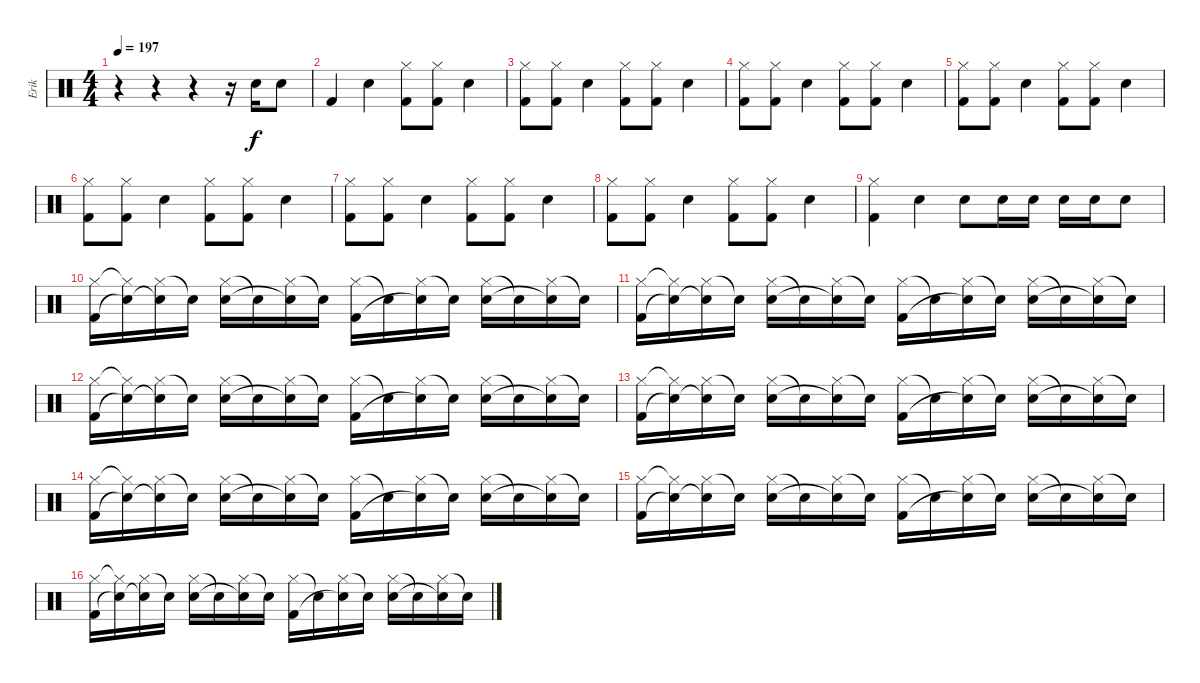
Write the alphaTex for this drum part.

\track ("Erik" "Erik") {instrument percussion}
\staff {score}
\articulation defaults
\ts (4 4)
\tempo 197
\clef neutral
\ks c
r.4{dy f} r.4 r.4 r.16 "Electric Snare (hit)".16 "Electric Snare (hit)".8 |
"Kick (hit) 2".4 "Electric Snare (hit)".4 ("Hi-Hat (closed)" "Kick (hit) 2").8 ("Hi-Hat (closed)" "Kick (hit) 2").8 "Electric Snare (hit)".4 |
("Hi-Hat (closed)" "Kick (hit) 2").8 ("Hi-Hat (closed)" "Kick (hit) 2").8 "Electric Snare (hit)".4 ("Hi-Hat (closed)" "Kick (hit) 2").8 ("Hi-Hat (closed)" "Kick (hit) 2").8 "Electric Snare (hit)".4 |
("Hi-Hat (closed)" "Kick (hit) 2").8 ("Hi-Hat (closed)" "Kick (hit) 2").8 "Electric Snare (hit)".4 ("Hi-Hat (closed)" "Kick (hit) 2").8 ("Hi-Hat (closed)" "Kick (hit) 2").8 "Electric Snare (hit)".4 |
("Hi-Hat (closed)" "Kick (hit) 2").8 ("Hi-Hat (closed)" "Kick (hit) 2").8 "Electric Snare (hit)".4 ("Hi-Hat (closed)" "Kick (hit) 2").8 ("Hi-Hat (closed)" "Kick (hit) 2").8 "Electric Snare (hit)".4 |
("Hi-Hat (closed)" "Kick (hit) 2").8 ("Hi-Hat (closed)" "Kick (hit) 2").8 "Electric Snare (hit)".4 ("Hi-Hat (closed)" "Kick (hit) 2").8 ("Hi-Hat (closed)" "Kick (hit) 2").8 "Electric Snare (hit)".4 |
("Hi-Hat (closed)" "Kick (hit) 2").8 ("Hi-Hat (closed)" "Kick (hit) 2").8 "Electric Snare (hit)".4 ("Hi-Hat (closed)" "Kick (hit) 2").8 ("Hi-Hat (closed)" "Kick (hit) 2").8 "Electric Snare (hit)".4 |
("Hi-Hat (closed)" "Kick (hit) 2").8 ("Hi-Hat (closed)" "Kick (hit) 2").8 "Electric Snare (hit)".4 ("Hi-Hat (closed)" "Kick (hit) 2").8 ("Hi-Hat (closed)" "Kick (hit) 2").8 "Electric Snare (hit)".4 |
("Hi-Hat (closed)" "Kick (hit) 2").4 "Electric Snare (hit)".4 "Electric Snare (hit)".8 "Electric Snare (hit)".16 "Electric Snare (hit)".16 "Electric Snare (hit)".16 "Electric Snare (hit)".16 "Electric Snare (hit)".8 |
("Hi-Hat (closed)" "Kick (hit) 2").16 ("Hi-Hat (closed)"{t} "Electric Snare (hit)"{t}).16 ("Hi-Hat (closed)" "Snare (hit)"{t}).16 "Snare (hit)"{t}.16 ("Hi-Hat (closed)" "Electric Snare (hit)").16 "Snare (hit)"{t}.16 ("Hi-Hat (closed)" "Snare (hit)"{t}).16 "Snare (hit)"{t}.16 ("Hi-Hat (closed)" "Kick (hit) 2").16 "Snare (hit)"{t}.16 ("Hi-Hat (closed)" "Snare (hit)"{t}).16 "Snare (hit)"{t}.16 ("Hi-Hat (closed)" "Electric Snare (hit)").16 "Snare (hit)"{t}.16 ("Hi-Hat (closed)" "Snare (hit)"{t}).16 "Snare (hit)"{t}.16 |
("Hi-Hat (closed)" "Kick (hit) 2").16 ("Hi-Hat (closed)"{t} "Electric Snare (hit)"{t}).16 ("Hi-Hat (closed)" "Snare (hit)"{t}).16 "Snare (hit)"{t}.16 ("Hi-Hat (closed)" "Electric Snare (hit)").16 "Snare (hit)"{t}.16 ("Hi-Hat (closed)" "Snare (hit)"{t}).16 "Snare (hit)"{t}.16 ("Hi-Hat (closed)" "Kick (hit) 2").16 "Snare (hit)"{t}.16 ("Hi-Hat (closed)" "Snare (hit)"{t}).16 "Snare (hit)"{t}.16 ("Hi-Hat (closed)" "Electric Snare (hit)").16 "Snare (hit)"{t}.16 ("Hi-Hat (closed)" "Snare (hit)"{t}).16 "Snare (hit)"{t}.16 |
("Hi-Hat (closed)" "Kick (hit) 2").16 ("Hi-Hat (closed)"{t} "Electric Snare (hit)"{t}).16 ("Hi-Hat (closed)" "Snare (hit)"{t}).16 "Snare (hit)"{t}.16 ("Hi-Hat (closed)" "Electric Snare (hit)").16 "Snare (hit)"{t}.16 ("Hi-Hat (closed)" "Snare (hit)"{t}).16 "Snare (hit)"{t}.16 ("Hi-Hat (closed)" "Kick (hit) 2").16 "Snare (hit)"{t}.16 ("Hi-Hat (closed)" "Snare (hit)"{t}).16 "Snare (hit)"{t}.16 ("Hi-Hat (closed)" "Electric Snare (hit)").16 "Snare (hit)"{t}.16 ("Hi-Hat (closed)" "Snare (hit)"{t}).16 "Snare (hit)"{t}.16 |
("Hi-Hat (closed)" "Kick (hit) 2").16 ("Hi-Hat (closed)"{t} "Electric Snare (hit)"{t}).16 ("Hi-Hat (closed)" "Snare (hit)"{t}).16 "Snare (hit)"{t}.16 ("Hi-Hat (closed)" "Electric Snare (hit)").16 "Snare (hit)"{t}.16 ("Hi-Hat (closed)" "Snare (hit)"{t}).16 "Snare (hit)"{t}.16 ("Hi-Hat (closed)" "Kick (hit) 2").16 "Snare (hit)"{t}.16 ("Hi-Hat (closed)" "Snare (hit)"{t}).16 "Snare (hit)"{t}.16 ("Hi-Hat (closed)" "Electric Snare (hit)").16 "Snare (hit)"{t}.16 ("Hi-Hat (closed)" "Snare (hit)"{t}).16 "Snare (hit)"{t}.16 |
("Hi-Hat (closed)" "Kick (hit) 2").16 ("Hi-Hat (closed)"{t} "Electric Snare (hit)"{t}).16 ("Hi-Hat (closed)" "Snare (hit)"{t}).16 "Snare (hit)"{t}.16 ("Hi-Hat (closed)" "Electric Snare (hit)").16 "Snare (hit)"{t}.16 ("Hi-Hat (closed)" "Snare (hit)"{t}).16 "Snare (hit)"{t}.16 ("Hi-Hat (closed)" "Kick (hit) 2").16 "Snare (hit)"{t}.16 ("Hi-Hat (closed)" "Snare (hit)"{t}).16 "Snare (hit)"{t}.16 ("Hi-Hat (closed)" "Electric Snare (hit)").16 "Snare (hit)"{t}.16 ("Hi-Hat (closed)" "Snare (hit)"{t}).16 "Snare (hit)"{t}.16 |
("Hi-Hat (closed)" "Kick (hit) 2").16 ("Hi-Hat (closed)"{t} "Electric Snare (hit)"{t}).16 ("Hi-Hat (closed)" "Snare (hit)"{t}).16 "Snare (hit)"{t}.16 ("Hi-Hat (closed)" "Electric Snare (hit)").16 "Snare (hit)"{t}.16 ("Hi-Hat (closed)" "Snare (hit)"{t}).16 "Snare (hit)"{t}.16 ("Hi-Hat (closed)" "Kick (hit) 2").16 "Snare (hit)"{t}.16 ("Hi-Hat (closed)" "Snare (hit)"{t}).16 "Snare (hit)"{t}.16 ("Hi-Hat (closed)" "Electric Snare (hit)").16 "Snare (hit)"{t}.16 ("Hi-Hat (closed)" "Snare (hit)"{t}).16 "Snare (hit)"{t}.16 |
("Hi-Hat (closed)" "Kick (hit) 2").16 ("Hi-Hat (closed)"{t} "Electric Snare (hit)"{t}).16 ("Hi-Hat (closed)" "Snare (hit)"{t}).16 "Snare (hit)"{t}.16 ("Hi-Hat (closed)" "Electric Snare (hit)").16 "Snare (hit)"{t}.16 ("Hi-Hat (closed)" "Snare (hit)"{t}).16 "Snare (hit)"{t}.16 ("Hi-Hat (closed)" "Kick (hit) 2").16 "Snare (hit)"{t}.16 ("Hi-Hat (closed)" "Snare (hit)"{t}).16 "Snare (hit)"{t}.16 ("Hi-Hat (closed)" "Electric Snare (hit)").16 "Snare (hit)"{t}.16 ("Hi-Hat (closed)" "Snare (hit)"{t}).16 "Snare (hit)"{t}.16
